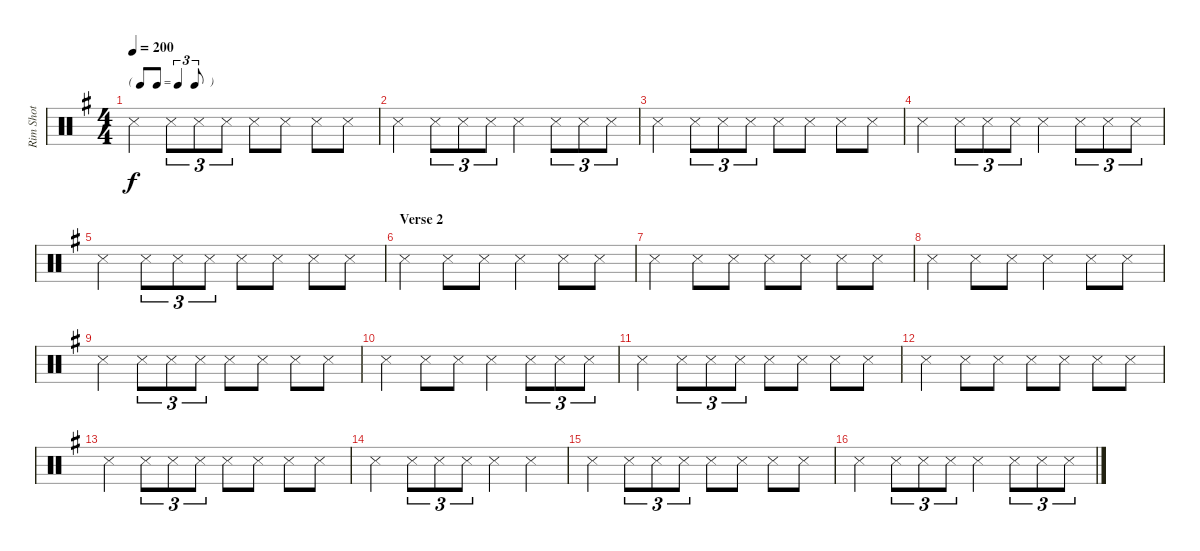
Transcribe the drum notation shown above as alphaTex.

\track ("Rim Shot" "Rim Shot") {instrument percussion}
\staff {score}
\articulation defaults
\ts (4 4)
\tf triplet8th
\tempo 200
\clef neutral
\ks g "Snare (side stick) 3".4{dy f} "Snare (side stick) 3".8{tu (3 2)} "Snare (side stick) 3".8{tu (3 2)} "Snare (side stick) 3".8{tu (3 2)} "Snare (side stick) 3".8 "Snare (side stick) 3".8 "Snare (side stick) 3".8 "Snare (side stick) 3".8
|
"Snare (side stick) 3".4 "Snare (side stick) 3".8{tu (3 2)} "Snare (side stick) 3".8{tu (3 2)} "Snare (side stick) 3".8{tu (3 2)} "Snare (side stick) 3".4 "Snare (side stick) 3".8{tu (3 2)} "Snare (side stick) 3".8{tu (3 2)} "Snare (side stick) 3".8{tu (3 2)} |
"Snare (side stick) 3".4 "Snare (side stick) 3".8{tu (3 2)} "Snare (side stick) 3".8{tu (3 2)} "Snare (side stick) 3".8{tu (3 2)} "Snare (side stick) 3".8 "Snare (side stick) 3".8 "Snare (side stick) 3".8 "Snare (side stick) 3".8 |
"Snare (side stick) 3".4 "Snare (side stick) 3".8{tu (3 2)} "Snare (side stick) 3".8{tu (3 2)} "Snare (side stick) 3".8{tu (3 2)} "Snare (side stick) 3".4 "Snare (side stick) 3".8{tu (3 2)} "Snare (side stick) 3".8{tu (3 2)} "Snare (side stick) 3".8{tu (3 2)} |
"Snare (side stick) 3".4 "Snare (side stick) 3".8{tu (3 2)} "Snare (side stick) 3".8{tu (3 2)} "Snare (side stick) 3".8{tu (3 2)} "Snare (side stick) 3".8 "Snare (side stick) 3".8 "Snare (side stick) 3".8 "Snare (side stick) 3".8 |
\section ("" "Verse 2")
"Snare (side stick) 3".4 "Snare (side stick) 3".8 "Snare (side stick) 3".8 "Snare (side stick) 3".4 "Snare (side stick) 3".8 "Snare (side stick) 3".8 |
"Snare (side stick) 3".4 "Snare (side stick) 3".8 "Snare (side stick) 3".8 "Snare (side stick) 3".8 "Snare (side stick) 3".8 "Snare (side stick) 3".8 "Snare (side stick) 3".8 |
"Snare (side stick) 3".4 "Snare (side stick) 3".8 "Snare (side stick) 3".8 "Snare (side stick) 3".4 "Snare (side stick) 3".8 "Snare (side stick) 3".8 |
"Snare (side stick) 3".4 "Snare (side stick) 3".8{tu (3 2)} "Snare (side stick) 3".8{tu (3 2)} "Snare (side stick) 3".8{tu (3 2)} "Snare (side stick) 3".8 "Snare (side stick) 3".8 "Snare (side stick) 3".8 "Snare (side stick) 3".8 |
"Snare (side stick) 3".4 "Snare (side stick) 3".8 "Snare (side stick) 3".8 "Snare (side stick) 3".4 "Snare (side stick) 3".8{tu (3 2)} "Snare (side stick) 3".8{tu (3 2)} "Snare (side stick) 3".8{tu (3 2)} |
"Snare (side stick) 3".4 "Snare (side stick) 3".8{tu (3 2)} "Snare (side stick) 3".8{tu (3 2)} "Snare (side stick) 3".8{tu (3 2)} "Snare (side stick) 3".8 "Snare (side stick) 3".8 "Snare (side stick) 3".8 "Snare (side stick) 3".8 |
"Snare (side stick) 3".4 "Snare (side stick) 3".8 "Snare (side stick) 3".8 "Snare (side stick) 3".8 "Snare (side stick) 3".8 "Snare (side stick) 3".8 "Snare (side stick) 3".8 |
"Snare (side stick) 3".4 "Snare (side stick) 3".8{tu (3 2)} "Snare (side stick) 3".8{tu (3 2)} "Snare (side stick) 3".8{tu (3 2)} "Snare (side stick) 3".8 "Snare (side stick) 3".8 "Snare (side stick) 3".8 "Snare (side stick) 3".8 |
"Snare (side stick) 3".4 "Snare (side stick) 3".8{tu (3 2)} "Snare (side stick) 3".8{tu (3 2)} "Snare (side stick) 3".8{tu (3 2)} "Snare (side stick) 3".4 "Snare (side stick) 3".4 |
"Snare (side stick) 3".4 "Snare (side stick) 3".8{tu (3 2)} "Snare (side stick) 3".8{tu (3 2)} "Snare (side stick) 3".8{tu (3 2)} "Snare (side stick) 3".8 "Snare (side stick) 3".8 "Snare (side stick) 3".8 "Snare (side stick) 3".8 |
"Snare (side stick) 3".4 "Snare (side stick) 3".8{tu (3 2)} "Snare (side stick) 3".8{tu (3 2)} "Snare (side stick) 3".8{tu (3 2)} "Snare (side stick) 3".4 "Snare (side stick) 3".8{tu (3 2)} "Snare (side stick) 3".8{tu (3 2)} "Snare (side stick) 3".8{tu (3 2)}
